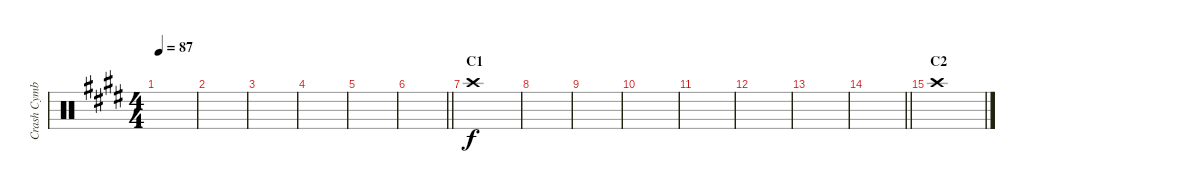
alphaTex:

\track ("Crash Cymbal" "Crash Cymb") {instrument percussion}
\staff {score}
\articulation defaults
\ts (4 4)
\tempo 87
\clef neutral
\ks e
|
|
|
|
|
\barLineRight lightlight
|
\section ("" "C1")
"Crash high (hit)".1 |
|
|
|
|
|
|
\barLineRight lightlight
|
\section ("" "C2")
"Crash high (hit)".1
